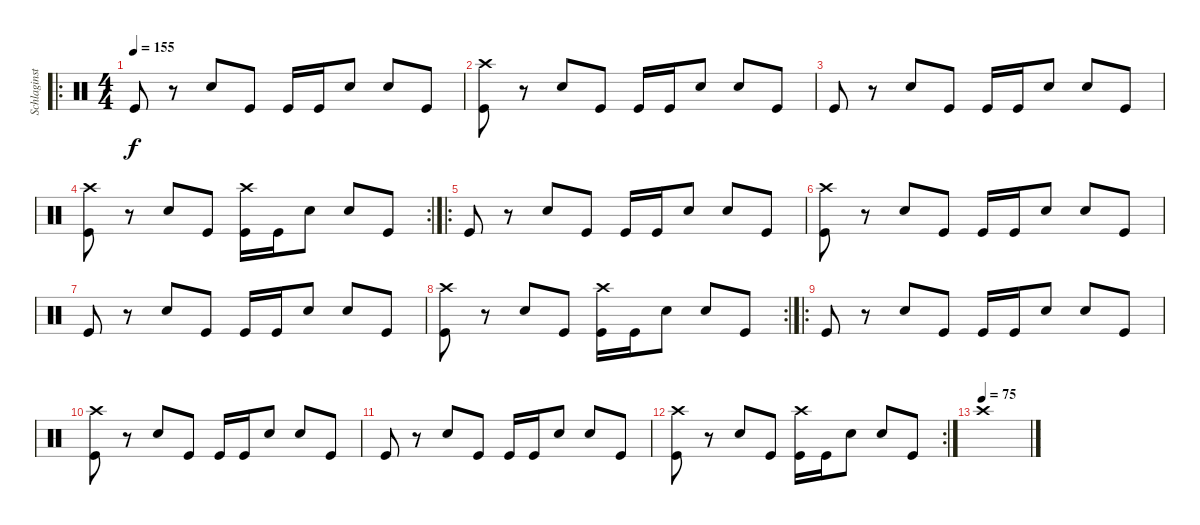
\track ("Schlaginstrumente - Auswahl" "Schlaginst") {instrument percussion}
\staff {score}
\articulation defaults
\ro
\ts (4 4)
\tempo 155
\clef neutral
\ks c "Kick (hit)".8{dy f}
r.8 "Snare (hit) 2".8 "Kick (hit)".8 "Kick (hit)".16 "Kick (hit)".16 "Snare (hit) 2".8 "Snare (hit) 2".8 "Kick (hit)".8 |
("Crash high (hit)" "Kick (hit)").8 r.8 "Snare (hit) 2".8 "Kick (hit)".8 "Kick (hit)".16 "Kick (hit)".16 "Snare (hit) 2".8 "Snare (hit) 2".8 "Kick (hit)".8 |
"Kick (hit)".8 r.8 "Snare (hit) 2".8 "Kick (hit)".8 "Kick (hit)".16 "Kick (hit)".16 "Snare (hit) 2".8 "Snare (hit) 2".8 "Kick (hit)".8 |
\rc 2
("Crash high (hit)" "Kick (hit)").8 r.8 "Snare (hit) 2".8 "Kick (hit)".8 ("Crash high (hit)" "Kick (hit)").16 "Kick (hit)".16 "Snare (hit) 2".8 "Snare (hit) 2".8 "Kick (hit)".8 |
\ro "Kick (hit)".8
r.8 "Snare (hit) 2".8 "Kick (hit)".8 "Kick (hit)".16 "Kick (hit)".16 "Snare (hit) 2".8 "Snare (hit) 2".8 "Kick (hit)".8 |
("Crash high (hit)" "Kick (hit)").8 r.8 "Snare (hit) 2".8 "Kick (hit)".8 "Kick (hit)".16 "Kick (hit)".16 "Snare (hit) 2".8 "Snare (hit) 2".8 "Kick (hit)".8 |
"Kick (hit)".8 r.8 "Snare (hit) 2".8 "Kick (hit)".8 "Kick (hit)".16 "Kick (hit)".16 "Snare (hit) 2".8 "Snare (hit) 2".8 "Kick (hit)".8 |
\rc 2
("Crash high (hit)" "Kick (hit)").8 r.8 "Snare (hit) 2".8 "Kick (hit)".8 ("Crash high (hit)" "Kick (hit)").16 "Kick (hit)".16 "Snare (hit) 2".8 "Snare (hit) 2".8 "Kick (hit)".8 |
\ro "Kick (hit)".8
r.8 "Snare (hit) 2".8 "Kick (hit)".8 "Kick (hit)".16 "Kick (hit)".16 "Snare (hit) 2".8 "Snare (hit) 2".8 "Kick (hit)".8 |
("Crash high (hit)" "Kick (hit)").8 r.8 "Snare (hit) 2".8 "Kick (hit)".8 "Kick (hit)".16 "Kick (hit)".16 "Snare (hit) 2".8 "Snare (hit) 2".8 "Kick (hit)".8 |
"Kick (hit)".8 r.8 "Snare (hit) 2".8 "Kick (hit)".8 "Kick (hit)".16 "Kick (hit)".16 "Snare (hit) 2".8 "Snare (hit) 2".8 "Kick (hit)".8 |
\rc 2
("Crash high (hit)" "Kick (hit)").8 r.8 "Snare (hit) 2".8 "Kick (hit)".8 ("Crash high (hit)" "Kick (hit)").16 "Kick (hit)".16 "Snare (hit) 2".8 "Snare (hit) 2".8 "Kick (hit)".8 |
\tempo (75)
"Crash high (hit)".1
